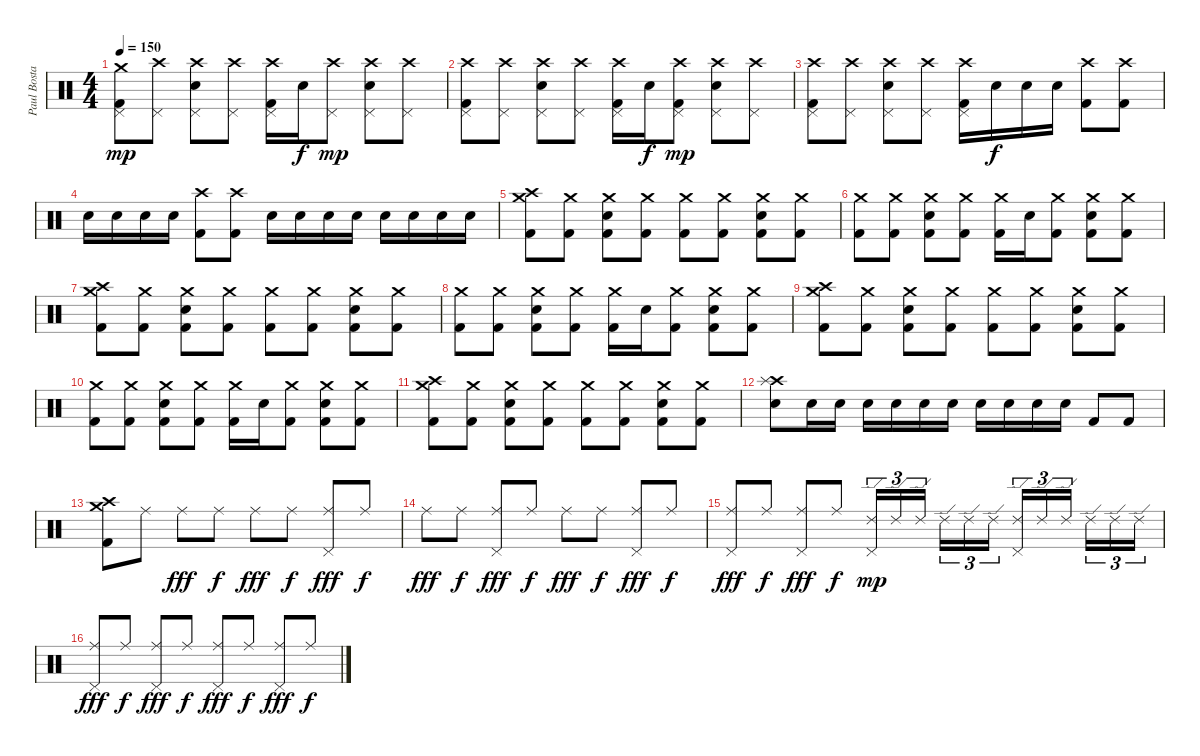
\track ("Paul Bostaph" "Paul Bosta") {instrument percussion}
\staff {score}
\articulation defaults
\ts (4 4)
\tempo 150
\clef neutral
\ks c
("Pedal Hi-Hat (hit)" "Crash medium (hit)" "Kick (hit) 2").8{dy mp} ("Pedal Hi-Hat (hit)" "Crash high (hit)").8 ("Pedal Hi-Hat (hit)" "Crash high (hit)" "Electric Snare (hit)").8 ("Pedal Hi-Hat (hit)" "Crash high (hit)").8 ("Pedal Hi-Hat (hit)" "Crash high (hit)" "Kick (hit) 2").16 "Electric Snare (hit)".16{dy f} ("Pedal Hi-Hat (hit)" "Crash high (hit)").8{dy mp} ("Pedal Hi-Hat (hit)" "Crash high (hit)" "Electric Snare (hit)").8 ("Pedal Hi-Hat (hit)" "Crash high (hit)").8 |
("Pedal Hi-Hat (hit)" "Crash high (hit)" "Kick (hit) 2").8 ("Pedal Hi-Hat (hit)" "Crash high (hit)").8 ("Pedal Hi-Hat (hit)" "Crash high (hit)" "Electric Snare (hit)").8 ("Pedal Hi-Hat (hit)" "Crash high (hit)").8 ("Pedal Hi-Hat (hit)" "Crash high (hit)" "Kick (hit) 2").16 "Electric Snare (hit)".16{dy f} ("Pedal Hi-Hat (hit)" "Crash high (hit)" "Kick (hit) 2").8{dy mp} ("Pedal Hi-Hat (hit)" "Crash high (hit)" "Electric Snare (hit)").8 ("Pedal Hi-Hat (hit)" "Crash high (hit)").8 |
("Pedal Hi-Hat (hit)" "Crash high (hit)" "Kick (hit) 2").8 ("Pedal Hi-Hat (hit)" "Crash high (hit)").8 ("Pedal Hi-Hat (hit)" "Crash high (hit)" "Electric Snare (hit)").8 ("Pedal Hi-Hat (hit)" "Crash high (hit)").8 ("Pedal Hi-Hat (hit)" "Crash high (hit)" "Kick (hit) 2").16 "Electric Snare (hit)".16{dy f} "Electric Snare (hit)".16 "Electric Snare (hit)".16 ("Crash high (hit)" "Kick (hit) 2").8 ("Crash high (hit)" "Kick (hit) 2").8 |
"Electric Snare (hit)".16 "Electric Snare (hit)".16 "Electric Snare (hit)".16 "Electric Snare (hit)".16 ("Crash high (hit)" "Kick (hit) 2").8 ("Crash high (hit)" "Kick (hit) 2").8 "Electric Snare (hit)".16 "Electric Snare (hit)".16 "Electric Snare (hit)".16 "Electric Snare (hit)".16 "Electric Snare (hit)".16 "Electric Snare (hit)".16 "Electric Snare (hit)".16 "Electric Snare (hit)".16 |
("Crash high (hit)" "Crash medium (hit)" "Kick (hit) 2").8 ("Crash medium (hit)" "Kick (hit) 2").8 ("Crash medium (hit)" "Kick (hit) 2" "Electric Snare (hit)").8 ("Crash medium (hit)" "Kick (hit) 2").8 ("Crash medium (hit)" "Kick (hit) 2").8 ("Crash medium (hit)" "Kick (hit) 2").8 ("Crash medium (hit)" "Kick (hit) 2" "Electric Snare (hit)").8 ("Crash medium (hit)" "Kick (hit) 2").8 |
("Crash medium (hit)" "Kick (hit) 2").8 ("Crash medium (hit)" "Kick (hit) 2").8 ("Crash medium (hit)" "Kick (hit) 2" "Electric Snare (hit)").8 ("Crash medium (hit)" "Kick (hit) 2").8 ("Crash medium (hit)" "Kick (hit) 2").16 "Electric Snare (hit)".16 ("Crash medium (hit)" "Kick (hit) 2").8 ("Crash medium (hit)" "Kick (hit) 2" "Electric Snare (hit)").8 ("Crash medium (hit)" "Kick (hit) 2").8 |
("Crash high (hit)" "Crash medium (hit)" "Kick (hit) 2").8 ("Crash medium (hit)" "Kick (hit) 2").8 ("Crash medium (hit)" "Kick (hit) 2" "Electric Snare (hit)").8 ("Crash medium (hit)" "Kick (hit) 2").8 ("Crash medium (hit)" "Kick (hit) 2").8 ("Crash medium (hit)" "Kick (hit) 2").8 ("Crash medium (hit)" "Kick (hit) 2" "Electric Snare (hit)").8 ("Crash medium (hit)" "Kick (hit) 2").8 |
("Crash medium (hit)" "Kick (hit) 2").8 ("Crash medium (hit)" "Kick (hit) 2").8 ("Crash medium (hit)" "Kick (hit) 2" "Electric Snare (hit)").8 ("Crash medium (hit)" "Kick (hit) 2").8 ("Crash medium (hit)" "Kick (hit) 2").16 "Electric Snare (hit)".16 ("Crash medium (hit)" "Kick (hit) 2").8 ("Crash medium (hit)" "Kick (hit) 2" "Electric Snare (hit)").8 ("Crash medium (hit)" "Kick (hit) 2").8 |
("Crash high (hit)" "Crash medium (hit)" "Kick (hit) 2").8 ("Crash medium (hit)" "Kick (hit) 2").8 ("Crash medium (hit)" "Kick (hit) 2" "Electric Snare (hit)").8 ("Crash medium (hit)" "Kick (hit) 2").8 ("Crash medium (hit)" "Kick (hit) 2").8 ("Crash medium (hit)" "Kick (hit) 2").8 ("Crash medium (hit)" "Kick (hit) 2" "Electric Snare (hit)").8 ("Crash medium (hit)" "Kick (hit) 2").8 |
("Crash medium (hit)" "Kick (hit) 2").8 ("Crash medium (hit)" "Kick (hit) 2").8 ("Crash medium (hit)" "Kick (hit) 2" "Electric Snare (hit)").8 ("Crash medium (hit)" "Kick (hit) 2").8 ("Crash medium (hit)" "Kick (hit) 2").16 "Electric Snare (hit)".16 ("Crash medium (hit)" "Kick (hit) 2").8 ("Crash medium (hit)" "Kick (hit) 2" "Electric Snare (hit)").8 ("Crash medium (hit)" "Kick (hit) 2").8 |
("Crash high (hit)" "Crash medium (hit)" "Kick (hit) 2").8 ("Crash medium (hit)" "Kick (hit) 2").8 ("Crash medium (hit)" "Kick (hit) 2" "Electric Snare (hit)").8 ("Crash medium (hit)" "Kick (hit) 2").8 ("Crash medium (hit)" "Kick (hit) 2").8 ("Crash medium (hit)" "Kick (hit) 2").8 ("Crash medium (hit)" "Kick (hit) 2" "Electric Snare (hit)").8 ("Crash medium (hit)" "Kick (hit) 2").8 |
("Crash high (hit)" "Splash (hit)" "Electric Snare (hit)").8 "Electric Snare (hit)".16 "Electric Snare (hit)".16 "Electric Snare (hit)".16 "Electric Snare (hit)".16 "Electric Snare (hit)".16 "Electric Snare (hit)".16 "Electric Snare (hit)".16 "Electric Snare (hit)".16 "Electric Snare (hit)".16 "Electric Snare (hit)".16 "Kick (hit) 2".8 "Kick (hit) 2".8 |
("Crash high (hit)" "Crash medium (hit)" "Kick (hit) 2").8 "Ride (middle)".8 "Ride (middle)".8{dy fff} "Ride (middle)".8{dy f} "Ride (middle)".8{dy fff} "Ride (middle)".8{dy f} ("Pedal Hi-Hat (hit)" "Ride (middle)").8{dy fff} "Ride (middle)".8{dy f} |
"Ride (middle)".8{dy fff} "Ride (middle)".8{dy f} ("Pedal Hi-Hat (hit)" "Ride (middle)").8{dy fff} "Ride (middle)".8{dy f} "Ride (middle)".8{dy fff} "Ride (middle)".8{dy f} ("Pedal Hi-Hat (hit)" "Ride (middle)").8{dy fff} "Ride (middle)".8{dy f} |
("Pedal Hi-Hat (hit)" "Ride (middle)").8{dy fff} "Ride (middle)".8{dy f} ("Pedal Hi-Hat (hit)" "Ride (middle)").8{dy fff} "Ride (middle)".8{dy f} ("Pedal Hi-Hat (hit)" "Ride (edge) 2").16{tu (3 2) dy mp} "Ride (edge) 2".16{tu (3 2)} "Ride (edge) 2".16{tu (3 2)} "Ride (edge) 2".16{tu (3 2)} "Ride (edge) 2".16{tu (3 2)} "Ride (edge) 2".16{tu (3 2)} ("Pedal Hi-Hat (hit)" "Ride (edge) 2").16{tu (3 2)} "Ride (edge) 2".16{tu (3 2)} "Ride (edge) 2".16{tu (3 2)} "Ride (edge) 2".16{tu (3 2)} "Ride (edge) 2".16{tu (3 2)} "Ride (edge) 2".16{tu (3 2)} |
("Ride (middle)" "Pedal Hi-Hat (hit)").8{dy fff} "Ride (middle)".8{dy f} ("Ride (middle)" "Pedal Hi-Hat (hit)").8{dy fff} "Ride (middle)".8{dy f} ("Ride (middle)" "Pedal Hi-Hat (hit)").8{dy fff} "Ride (middle)".8{dy f} ("Ride (middle)" "Pedal Hi-Hat (hit)").8{dy fff} "Ride (middle)".8{dy f}
